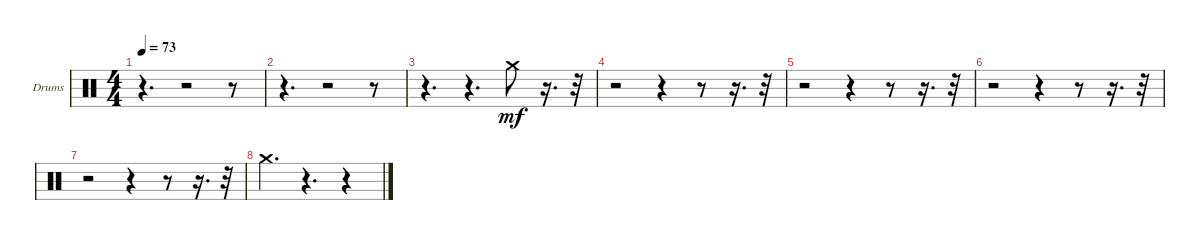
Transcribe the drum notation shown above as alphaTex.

\bracketExtendMode groupsimilarinstruments
\firstSystemTrackNameOrientation horizontal
\otherSystemsTrackNameOrientation horizontal
\track ("crash" "Drums") {instrument percussion}
\staff {score}
\articulation defaults
\ts (4 4)
\tempo 73
\clef neutral
\ks c
r.4{d dy mf} r.2 r.8 |
r.4{d} r.2 r.8 |
r.4{d} r.4{d} "Crash medium (hit)".8 r.16{d} r.32 |
r.2 r.4 r.8 r.16{d} r.32 |
r.2 r.4 r.8 r.16{d} r.32 |
r.2 r.4 r.8 r.16{d} r.32 |
r.2 r.4 r.8 r.16{d} r.32 |
"Crash medium (hit)".4{d} r.4{d} r.4
